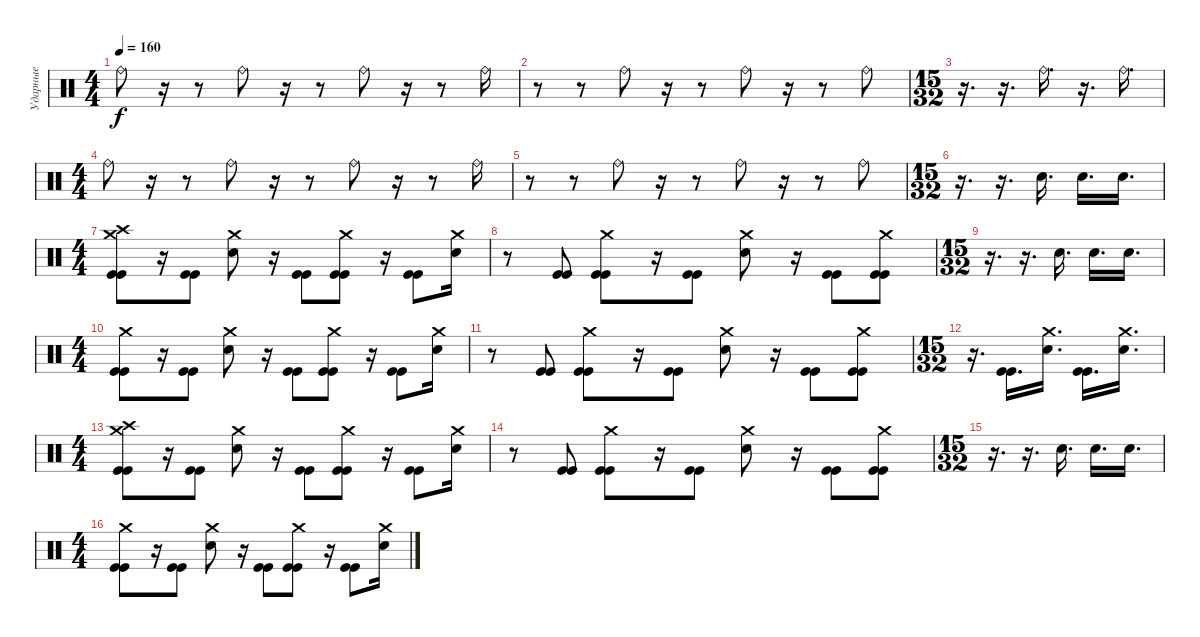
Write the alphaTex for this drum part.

\track ("Ударные" "Ударные") {instrument percussion}
\staff {score}
\articulation defaults
\ts (4 4)
\tempo 160
\clef neutral
\ks c "Ride (bell)".8{dy f}
r.16 r.8 "Ride (bell)".8 r.16 r.8 "Ride (bell)".8 r.16 r.8 "Ride (bell)".16 |
r.8 r.8 "Ride (bell)".8 r.16 r.8 "Ride (bell)".8 r.16 r.8 "Ride (bell)".8 |
\ts (15 32)
r.16{d} r.16{d} "Ride (bell)".16{d} r.16{d} "Ride (bell)".16{d} |
\ts (4 4)
"Ride (bell)".8 r.16 r.8 "Ride (bell)".8 r.16 r.8 "Ride (bell)".8 r.16 r.8 "Ride (bell)".16 |
r.8 r.8 "Ride (bell)".8 r.16 r.8 "Ride (bell)".8 r.16 r.8 "Ride (bell)".8 |
\ts (15 32)
r.16{d} r.16{d} "Electric Snare (hit)".16{d} "Electric Snare (hit)".16{d} "Electric Snare (hit)".16{d} |
\ts (4 4)
("Crash high (hit)" "Crash medium (hit)" "Kick (hit)" "Kick (hit)").8 r.16 ("Kick (hit)" "Kick (hit)").8 ("Crash medium (hit)" "Electric Snare (hit)").8 r.16 ("Kick (hit)" "Kick (hit)").8 ("Crash medium (hit)" "Kick (hit)" "Kick (hit)").8 r.16 ("Kick (hit)" "Kick (hit)").8 ("Crash medium (hit)" "Electric Snare (hit)").16 |
r.8 ("Kick (hit)" "Kick (hit)").8 ("Crash medium (hit)" "Kick (hit)" "Kick (hit)").8 r.16 ("Kick (hit)" "Kick (hit)").8 ("Crash medium (hit)" "Electric Snare (hit)").8 r.16 ("Kick (hit)" "Kick (hit)").8 ("Crash medium (hit)" "Kick (hit)" "Kick (hit)").8 |
\ts (15 32)
r.16{d} r.16{d} "Electric Snare (hit)".16{d} "Electric Snare (hit)".16{d} "Electric Snare (hit)".16{d} |
\ts (4 4)
("Crash medium (hit)" "Kick (hit)" "Kick (hit)").8 r.16 ("Kick (hit)" "Kick (hit)").8 ("Crash medium (hit)" "Electric Snare (hit)").8 r.16 ("Kick (hit)" "Kick (hit)").8 ("Crash medium (hit)" "Kick (hit)" "Kick (hit)").8 r.16 ("Kick (hit)" "Kick (hit)").8 ("Crash medium (hit)" "Electric Snare (hit)").16 |
r.8 ("Kick (hit)" "Kick (hit)").8 ("Crash medium (hit)" "Kick (hit)" "Kick (hit)").8 r.16 ("Kick (hit)" "Kick (hit)").8 ("Crash medium (hit)" "Electric Snare (hit)").8 r.16 ("Kick (hit)" "Kick (hit)").8 ("Crash medium (hit)" "Kick (hit)" "Kick (hit)").8 |
\ts (15 32)
r.16{d} ("Kick (hit)" "Kick (hit)").16{d} ("Crash medium (hit)" "Electric Snare (hit)").16{d} ("Kick (hit)" "Kick (hit)").16{d} ("Crash medium (hit)" "Electric Snare (hit)").16{d} |
\ts (4 4)
("Crash high (hit)" "Crash medium (hit)" "Kick (hit)" "Kick (hit)").8 r.16 ("Kick (hit)" "Kick (hit)").8 ("Crash medium (hit)" "Electric Snare (hit)").8 r.16 ("Kick (hit)" "Kick (hit)").8 ("Crash medium (hit)" "Kick (hit)" "Kick (hit)").8 r.16 ("Kick (hit)" "Kick (hit)").8 ("Crash medium (hit)" "Electric Snare (hit)").16 |
r.8 ("Kick (hit)" "Kick (hit)").8 ("Crash medium (hit)" "Kick (hit)" "Kick (hit)").8 r.16 ("Kick (hit)" "Kick (hit)").8 ("Crash medium (hit)" "Electric Snare (hit)").8 r.16 ("Kick (hit)" "Kick (hit)").8 ("Crash medium (hit)" "Kick (hit)" "Kick (hit)").8 |
\ts (15 32)
r.16{d} r.16{d} "Electric Snare (hit)".16{d} "Electric Snare (hit)".16{d} "Electric Snare (hit)".16{d} |
\ts (4 4)
("Crash medium (hit)" "Kick (hit)" "Kick (hit)").8 r.16 ("Kick (hit)" "Kick (hit)").8 ("Crash medium (hit)" "Electric Snare (hit)").8 r.16 ("Kick (hit)" "Kick (hit)").8 ("Crash medium (hit)" "Kick (hit)" "Kick (hit)").8 r.16 ("Kick (hit)" "Kick (hit)").8 ("Crash medium (hit)" "Electric Snare (hit)").16
